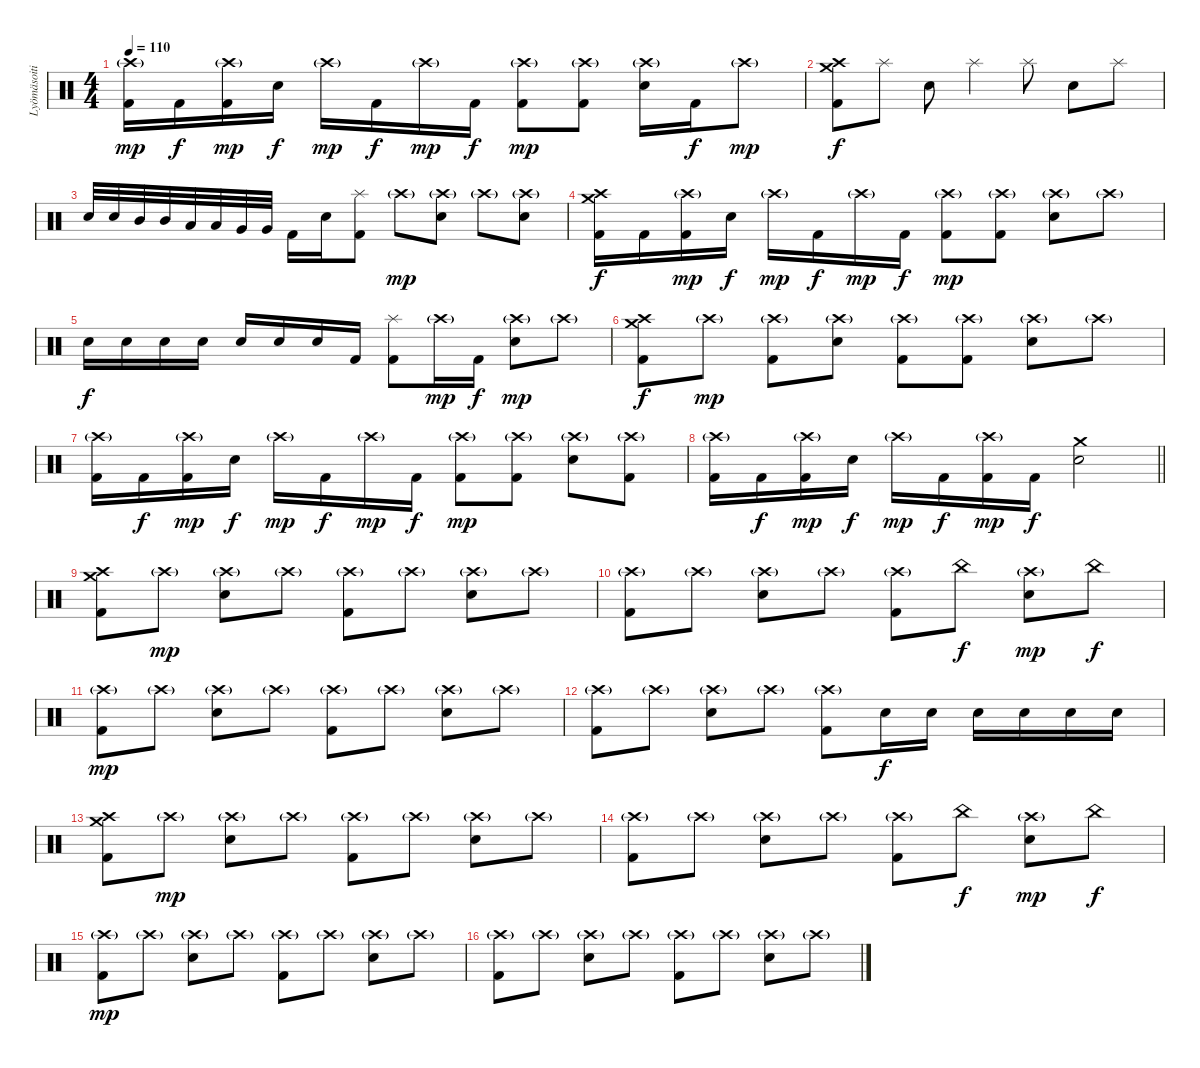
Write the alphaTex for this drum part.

\track ("Lyömäsoitin" "Lyömäsoiti") {instrument percussion}
\staff {score}
\articulation defaults
\ts (4 4)
\tempo 110
\clef neutral
\ks c
("Crash high (hit)"{g} "Kick (hit) 2").16{dy mp} "Kick (hit) 2".16{dy f} ("Crash high (hit)"{g} "Kick (hit) 2").16{dy mp} "Electric Snare (hit)".16{dy f} "Crash high (hit)"{g}.16{dy mp} "Kick (hit) 2".16{dy f} "Crash high (hit)"{g}.16{dy mp} "Kick (hit) 2".16{dy f} ("Crash high (hit)"{g} "Kick (hit) 2").8{dy mp} ("Crash high (hit)"{g} "Kick (hit) 2").8 ("Crash high (hit)"{g} "Electric Snare (hit)").16 "Kick (hit) 2".16{dy f} "Crash high (hit)"{g}.8{dy mp} |
("Crash medium (hit)" "Crash high (hit)" "Kick (hit) 2").8{dy f} "Splash (hit)".8 "Electric Snare (hit)".8 "Splash (hit)".4 "Splash (hit)".8 "Electric Snare (hit)".8 "Splash (hit)".8 |
"Electric Snare (hit)".32 "Electric Snare (hit)".32 "Mid Tom (hit)".32 "Mid Tom (hit)".32 "Low Tom (hit)".32 "Low Tom (hit)".32 "Very Low Tom (hit)".32 "Very Low Tom (hit)".32 "Kick (hit) 2".16 "Electric Snare (hit)".16 ("Splash (hit)" "Kick (hit) 2").8 "Crash high (hit)"{g}.8{dy mp} ("Crash high (hit)"{g} "Electric Snare (hit)").8 "Crash high (hit)"{g}.8 ("Crash high (hit)"{g} "Electric Snare (hit)").8 |
("Crash medium (hit)" "Crash high (hit)" "Kick (hit) 2").16{dy f} "Kick (hit) 2".16 ("Crash high (hit)"{g} "Kick (hit) 2").16{dy mp} "Electric Snare (hit)".16{dy f} "Crash high (hit)"{g}.16{dy mp} "Kick (hit) 2".16{dy f} "Crash high (hit)"{g}.16{dy mp} "Kick (hit) 2".16{dy f} ("Crash high (hit)"{g} "Kick (hit) 2").8{dy mp} ("Crash high (hit)"{g} "Kick (hit) 2").8 ("Crash high (hit)"{g} "Electric Snare (hit)").8 "Crash high (hit)"{g}.8 |
"Electric Snare (hit)".16{dy f} "Electric Snare (hit)".16 "Electric Snare (hit)".16 "Electric Snare (hit)".16 "Electric Snare (hit)".16 "Electric Snare (hit)".16 "Electric Snare (hit)".16 "Kick (hit) 2".16 ("Splash (hit)" "Kick (hit) 2").8 "Crash high (hit)"{g}.16{dy mp} "Kick (hit) 2".16{dy f} ("Crash high (hit)"{g} "Electric Snare (hit)").8{dy mp} "Crash high (hit)"{g}.8 |
("Crash medium (hit)" "Crash high (hit)" "Kick (hit) 2").8{dy f} "Crash high (hit)"{g}.8{dy mp} ("Crash high (hit)"{g} "Kick (hit) 2").8 ("Crash high (hit)"{g} "Electric Snare (hit)").8 ("Crash high (hit)"{g} "Kick (hit) 2").8 ("Crash high (hit)"{g} "Kick (hit) 2").8 ("Crash high (hit)"{g} "Electric Snare (hit)").8 "Crash high (hit)"{g}.8 |
("Crash high (hit)"{g} "Kick (hit) 2").16 "Kick (hit) 2".16{dy f} ("Crash high (hit)"{g} "Kick (hit) 2").16{dy mp} "Electric Snare (hit)".16{dy f} "Crash high (hit)"{g}.16{dy mp} "Kick (hit) 2".16{dy f} "Crash high (hit)"{g}.16{dy mp} "Kick (hit) 2".16{dy f} ("Crash high (hit)"{g} "Kick (hit) 2").8{dy mp} ("Crash high (hit)"{g} "Kick (hit) 2").8 ("Crash high (hit)"{g} "Electric Snare (hit)").8 ("Crash high (hit)"{g} "Kick (hit) 2").8 |
\barLineRight lightlight
("Crash high (hit)"{g} "Kick (hit) 2").16 "Kick (hit) 2".16{dy f} ("Crash high (hit)"{g} "Kick (hit) 2").16{dy mp} "Electric Snare (hit)".16{dy f} "Crash high (hit)"{g}.16{dy mp} "Kick (hit) 2".16{dy f} ("Crash high (hit)"{g} "Kick (hit) 2").16{dy mp} "Kick (hit) 2".16{dy f} ("Crash medium (hit)" "Electric Snare (hit)").2 |
\section ("" "")
("Crash medium (hit)" "Crash high (hit)" "Kick (hit) 2").8 "Crash high (hit)"{g}.8{dy mp} ("Crash high (hit)"{g} "Electric Snare (hit)").8 "Crash high (hit)"{g}.8 ("Crash high (hit)"{g} "Kick (hit) 2").8 "Crash high (hit)"{g}.8 ("Crash high (hit)"{g} "Electric Snare (hit)").8 "Crash high (hit)"{g}.8 |
("Crash high (hit)"{g} "Kick (hit) 2").8 "Crash high (hit)"{g}.8 ("Crash high (hit)"{g} "Electric Snare (hit)").8 "Crash high (hit)"{g}.8 ("Crash high (hit)"{g} "Kick (hit) 2").8 "China (hit)".8{dy f} ("Crash high (hit)"{g} "Electric Snare (hit)").8{dy mp} "China (hit)".8{dy f} |
("Crash high (hit)"{g} "Kick (hit) 2").8{dy mp} "Crash high (hit)"{g}.8 ("Crash high (hit)"{g} "Electric Snare (hit)").8 "Crash high (hit)"{g}.8 ("Crash high (hit)"{g} "Kick (hit) 2").8 "Crash high (hit)"{g}.8 ("Crash high (hit)"{g} "Electric Snare (hit)").8 "Crash high (hit)"{g}.8 |
("Crash high (hit)"{g} "Kick (hit) 2").8 "Crash high (hit)"{g}.8 ("Crash high (hit)"{g} "Electric Snare (hit)").8 "Crash high (hit)"{g}.8 ("Crash high (hit)"{g} "Kick (hit) 2").8 "Electric Snare (hit)".16{dy f} "Electric Snare (hit)".16 "Electric Snare (hit)".16 "Electric Snare (hit)".16 "Electric Snare (hit)".16 "Electric Snare (hit)".16 |
("Crash medium (hit)" "Crash high (hit)" "Kick (hit) 2").8 "Crash high (hit)"{g}.8{dy mp} ("Crash high (hit)"{g} "Electric Snare (hit)").8 "Crash high (hit)"{g}.8 ("Crash high (hit)"{g} "Kick (hit) 2").8 "Crash high (hit)"{g}.8 ("Crash high (hit)"{g} "Electric Snare (hit)").8 "Crash high (hit)"{g}.8 |
("Crash high (hit)"{g} "Kick (hit) 2").8 "Crash high (hit)"{g}.8 ("Crash high (hit)"{g} "Electric Snare (hit)").8 "Crash high (hit)"{g}.8 ("Crash high (hit)"{g} "Kick (hit) 2").8 "China (hit)".8{dy f} ("Crash high (hit)"{g} "Electric Snare (hit)").8{dy mp} "China (hit)".8{dy f} |
("Crash high (hit)"{g} "Kick (hit) 2").8{dy mp} "Crash high (hit)"{g}.8 ("Crash high (hit)"{g} "Electric Snare (hit)").8 "Crash high (hit)"{g}.8 ("Crash high (hit)"{g} "Kick (hit) 2").8 "Crash high (hit)"{g}.8 ("Crash high (hit)"{g} "Electric Snare (hit)").8 "Crash high (hit)"{g}.8 |
("Crash high (hit)"{g} "Kick (hit) 2").8 "Crash high (hit)"{g}.8 ("Crash high (hit)"{g} "Electric Snare (hit)").8 "Crash high (hit)"{g}.8 ("Crash high (hit)"{g} "Kick (hit) 2").8 "Crash high (hit)"{g}.8 ("Crash high (hit)"{g} "Electric Snare (hit)").8 "Crash high (hit)"{g}.8
